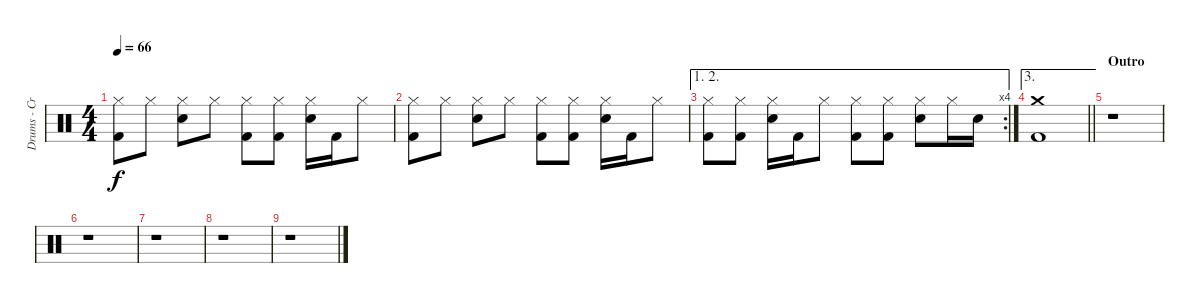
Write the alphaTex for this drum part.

\track ("Drums - Craig" "Drums - Cr") {instrument percussion}
\staff {score}
\articulation defaults
\ts (4 4)
\tempo 66
\clef neutral
\ks c
("Hi-Hat (closed)" "Kick (hit) 2").8{dy f} "Hi-Hat (closed)".8 ("Hi-Hat (closed)" "Snare (hit) 2").8 "Hi-Hat (closed)".8 ("Hi-Hat (closed)" "Kick (hit) 2").8 ("Hi-Hat (closed)" "Kick (hit) 2").8 ("Hi-Hat (closed)" "Snare (hit) 2").16 "Kick (hit) 2".16 "Hi-Hat (closed)".8 |
("Hi-Hat (closed)" "Kick (hit) 2").8 "Hi-Hat (closed)".8 ("Hi-Hat (closed)" "Snare (hit) 2").8 "Hi-Hat (closed)".8 ("Hi-Hat (closed)" "Kick (hit) 2").8 ("Hi-Hat (closed)" "Kick (hit) 2").8 ("Hi-Hat (closed)" "Snare (hit) 2").16 "Kick (hit) 2".16 "Hi-Hat (closed)".8 |
\ae (1 2)
\rc 4
("Hi-Hat (closed)" "Kick (hit) 2").8 ("Hi-Hat (closed)" "Kick (hit) 2").8 ("Hi-Hat (closed)" "Snare (hit) 2").16 "Kick (hit) 2".16 "Hi-Hat (closed)".8 ("Hi-Hat (closed)" "Kick (hit) 2").8 ("Hi-Hat (closed)" "Kick (hit) 2").8 ("Hi-Hat (closed)" "Snare (hit) 2").8 "Hi-Hat (closed)".16 "Snare (hit) 2".16 |
\ae 3
\barLineRight lightlight
("Crash medium (hit)" "Kick (hit) 2").1 |
\section ("" "Outro")
r.1 |
r.1 |
r.1 |
r.1 |
r.1
